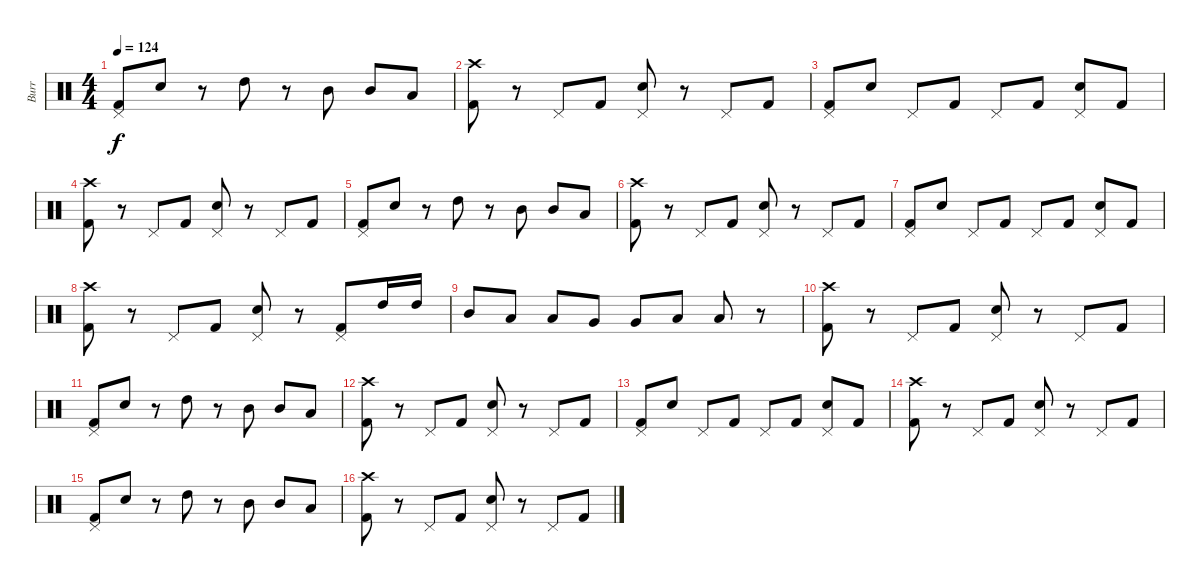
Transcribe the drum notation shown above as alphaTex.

\track ("Burr" "Burr") {instrument percussion}
\staff {score}
\articulation defaults
\ts (4 4)
\tempo 124
\clef neutral
\ks c
("Pedal Hi-Hat (hit)" "Kick (hit) 2").8{dy f} "Snare (hit) 2".8 r.8 "High Tom (hit)".8 r.8 "Mid Tom (hit)".8 "Mid Tom (hit)".8 "Low Tom (hit)".8 |
("Crash high (hit)" "Kick (hit) 2").8 r.8 "Pedal Hi-Hat (hit)".8 "Kick (hit) 2".8 ("Pedal Hi-Hat (hit)" "Snare (hit) 2").8 r.8 "Pedal Hi-Hat (hit)".8 "Kick (hit) 2".8 |
("Pedal Hi-Hat (hit)" "Kick (hit) 2").8 "Snare (hit) 2".8 "Pedal Hi-Hat (hit)".8 "Kick (hit) 2".8 "Pedal Hi-Hat (hit)".8 "Kick (hit) 2".8 ("Pedal Hi-Hat (hit)" "Snare (hit) 2").8 "Kick (hit) 2".8 |
("Crash high (hit)" "Kick (hit) 2").8 r.8 "Pedal Hi-Hat (hit)".8 "Kick (hit) 2".8 ("Pedal Hi-Hat (hit)" "Snare (hit) 2").8 r.8 "Pedal Hi-Hat (hit)".8 "Kick (hit) 2".8 |
("Pedal Hi-Hat (hit)" "Kick (hit) 2").8 "Snare (hit) 2".8 r.8 "High Tom (hit)".8 r.8 "Mid Tom (hit)".8 "Mid Tom (hit)".8 "Low Tom (hit)".8 |
("Crash high (hit)" "Kick (hit) 2").8 r.8 "Pedal Hi-Hat (hit)".8 "Kick (hit) 2".8 ("Pedal Hi-Hat (hit)" "Snare (hit) 2").8 r.8 "Pedal Hi-Hat (hit)".8 "Kick (hit) 2".8 |
("Pedal Hi-Hat (hit)" "Kick (hit) 2").8 "Snare (hit) 2".8 "Pedal Hi-Hat (hit)".8 "Kick (hit) 2".8 "Pedal Hi-Hat (hit)".8 "Kick (hit) 2".8 ("Pedal Hi-Hat (hit)" "Snare (hit) 2").8 "Kick (hit) 2".8 |
("Crash high (hit)" "Kick (hit) 2").8 r.8 "Pedal Hi-Hat (hit)".8 "Kick (hit) 2".8 ("Pedal Hi-Hat (hit)" "Snare (hit) 2").8 r.8 ("Pedal Hi-Hat (hit)" "Kick (hit) 2").8 "High Tom (hit)".16 "High Tom (hit)".16 |
"Mid Tom (hit)".8 "Low Tom (hit)".8 "Low Tom (hit)".8 "Very Low Tom (hit)".8 "Very Low Tom (hit)".8 "Low Floor Tom (hit)".8 "Low Floor Tom (hit)".8 r.8 |
("Crash high (hit)" "Kick (hit) 2").8 r.8 "Pedal Hi-Hat (hit)".8 "Kick (hit) 2".8 ("Pedal Hi-Hat (hit)" "Snare (hit) 2").8 r.8 "Pedal Hi-Hat (hit)".8 "Kick (hit) 2".8 |
("Pedal Hi-Hat (hit)" "Kick (hit) 2").8 "Snare (hit) 2".8 r.8 "High Tom (hit)".8 r.8 "Mid Tom (hit)".8 "Mid Tom (hit)".8 "Low Tom (hit)".8 |
("Crash high (hit)" "Kick (hit) 2").8 r.8 "Pedal Hi-Hat (hit)".8 "Kick (hit) 2".8 ("Pedal Hi-Hat (hit)" "Snare (hit) 2").8 r.8 "Pedal Hi-Hat (hit)".8 "Kick (hit) 2".8 |
("Pedal Hi-Hat (hit)" "Kick (hit) 2").8 "Snare (hit) 2".8 "Pedal Hi-Hat (hit)".8 "Kick (hit) 2".8 "Pedal Hi-Hat (hit)".8 "Kick (hit) 2".8 ("Pedal Hi-Hat (hit)" "Snare (hit) 2").8 "Kick (hit) 2".8 |
("Crash high (hit)" "Kick (hit) 2").8 r.8 "Pedal Hi-Hat (hit)".8 "Kick (hit) 2".8 ("Pedal Hi-Hat (hit)" "Snare (hit) 2").8 r.8 "Pedal Hi-Hat (hit)".8 "Kick (hit) 2".8 |
("Pedal Hi-Hat (hit)" "Kick (hit) 2").8 "Snare (hit) 2".8 r.8 "High Tom (hit)".8 r.8 "Mid Tom (hit)".8 "Mid Tom (hit)".8 "Low Tom (hit)".8 |
("Crash high (hit)" "Kick (hit) 2").8 r.8 "Pedal Hi-Hat (hit)".8 "Kick (hit) 2".8 ("Pedal Hi-Hat (hit)" "Snare (hit) 2").8 r.8 "Pedal Hi-Hat (hit)".8 "Kick (hit) 2".8
